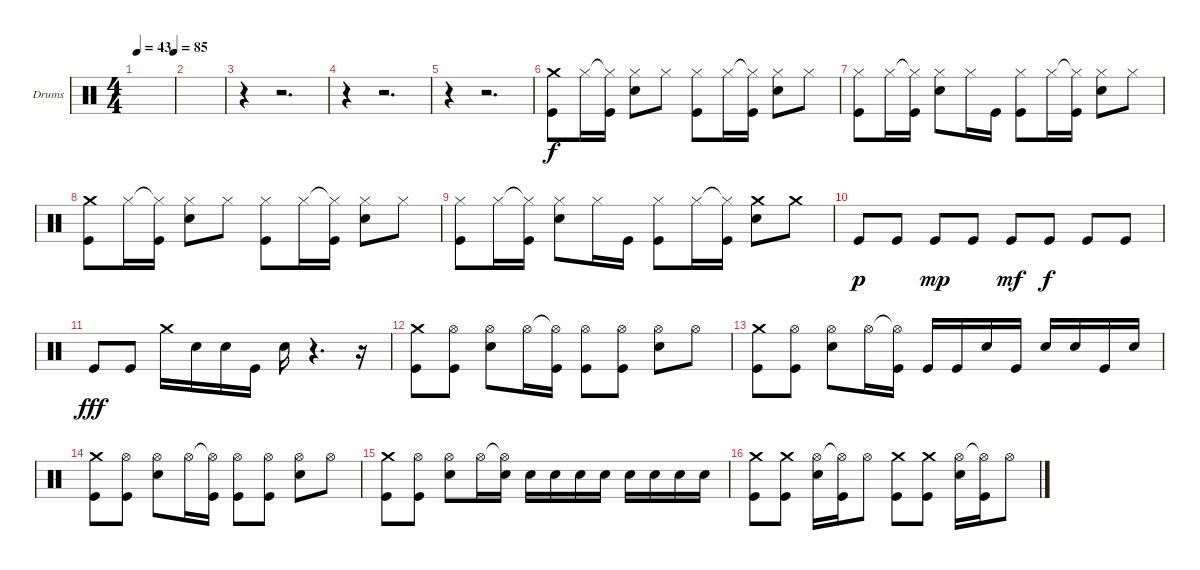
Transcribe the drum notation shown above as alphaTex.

\defaultSystemsLayout 4
\bracketExtendMode groupsimilarinstruments
\firstSystemTrackNameOrientation horizontal
\otherSystemsTrackNameOrientation horizontal
\track ("Drumkit" "Drums") {instrument percussion}
\staff {score}
\articulation defaults
\ts (4 4)
\tempo 43
\tempo (85 1)
\clef neutral
\scale
0.472222
\ks c
|
\scale
0.263889 |
\scale
0.263889 r.4 r.2{d} |
\scale
0.333333 r.4 r.2{d} |
\scale
0.333333 r.4 r.2{d} |
\scale
0.333333 ("Crash medium (hit)" "Kick (hit)").8 "Hi-Hat (closed)".16 ("Hi-Hat (closed)"{t} "Kick (hit)").16 ("Hi-Hat (closed)" "Snare (hit) 2").8 "Hi-Hat (closed)".8 ("Hi-Hat (closed)" "Kick (hit)").8 "Hi-Hat (closed)".16 ("Hi-Hat (closed)"{t} "Kick (hit)").16 ("Hi-Hat (closed)" "Snare (hit) 2").8 "Hi-Hat (closed)".8 |
\scale
0.333333 ("Hi-Hat (closed)" "Kick (hit)").8 "Hi-Hat (closed)".16 ("Hi-Hat (closed)"{t} "Kick (hit)").16 ("Hi-Hat (closed)" "Snare (hit) 2").8 "Hi-Hat (closed)".16 "Kick (hit)".16 ("Hi-Hat (closed)" "Kick (hit)").8 "Hi-Hat (closed)".16 ("Hi-Hat (closed)"{t} "Kick (hit)").16 ("Hi-Hat (closed)" "Snare (hit) 2").8 "Hi-Hat (closed)".8 |
\scale
0.333333 ("Crash medium (hit)" "Kick (hit)").8 "Hi-Hat (closed)".16 ("Hi-Hat (closed)"{t} "Kick (hit)").16 ("Hi-Hat (closed)" "Snare (hit) 2").8 "Hi-Hat (closed)".8 ("Hi-Hat (closed)" "Kick (hit)").8 "Hi-Hat (closed)".16 ("Hi-Hat (closed)"{t} "Kick (hit)").16 ("Hi-Hat (closed)" "Snare (hit) 2").8 "Hi-Hat (closed)".8 |
\scale
0.333333 ("Hi-Hat (closed)" "Kick (hit)").8 "Hi-Hat (closed)".16 ("Hi-Hat (closed)"{t} "Kick (hit)").16 ("Hi-Hat (closed)" "Snare (hit) 2").8 "Hi-Hat (closed)".16 "Kick (hit)".16 ("Hi-Hat (closed)" "Kick (hit)").8 "Hi-Hat (closed)".16 ("Hi-Hat (closed)"{t} "Kick (hit)").16 ("Crash medium (hit)" "Snare (hit) 2").8 "Crash medium (hit)".8 |
\scale
0.333333 "Kick (hit)".8{dy p} "Kick (hit)".8 "Kick (hit)".8{dy mp} "Kick (hit)".8 "Kick (hit)".8{dy mf} "Kick (hit)".8{dy f} "Kick (hit)".8 "Kick (hit)".8 |
\scale
0.333333 "Kick (hit)".8{dy fff} "Kick (hit)".8 "Crash medium (hit)".16 "Snare (hit) 2".16 "Snare (hit) 2".16 "Kick (hit)".16 "Snare (hit) 2".16 r.4{d} r.16 |
\scale
0.333333 ("Crash medium (hit)" "Kick (hit)").8 ("Hi-Hat (open)" "Kick (hit)").8 ("Hi-Hat (open)" "Snare (hit) 2").8 "Hi-Hat (open)".16 ("Hi-Hat (open)"{t} "Kick (hit)").16 ("Hi-Hat (open)" "Kick (hit)").8 ("Hi-Hat (open)" "Kick (hit)").8 ("Hi-Hat (open)" "Snare (hit) 2").8 "Hi-Hat (open)".8 |
\scale
0.333333 ("Crash medium (hit)" "Kick (hit)").8 ("Hi-Hat (open)" "Kick (hit)").8 ("Hi-Hat (open)" "Snare (hit) 2").8 "Hi-Hat (open)".16 ("Hi-Hat (open)"{t} "Kick (hit)").16 "Kick (hit)".16 "Kick (hit)".16 "Snare (hit) 2".16 "Kick (hit)".16 "Snare (hit) 2".16 "Snare (hit) 2".16 "Kick (hit)".16 "Snare (hit) 2".16 |
\scale
0.333333 ("Crash medium (hit)" "Kick (hit)").8 ("Hi-Hat (open)" "Kick (hit)").8 ("Hi-Hat (open)" "Snare (hit) 2").8 "Hi-Hat (open)".16 ("Hi-Hat (open)"{t} "Kick (hit)").16 ("Hi-Hat (open)" "Kick (hit)").8 ("Hi-Hat (open)" "Kick (hit)").8 ("Hi-Hat (open)" "Snare (hit) 2").8 "Hi-Hat (open)".8 |
\scale
0.333333 ("Crash medium (hit)" "Kick (hit)").8 ("Hi-Hat (open)" "Kick (hit)").8 ("Hi-Hat (open)" "Snare (hit) 2").8 "Hi-Hat (open)".16 ("Hi-Hat (open)"{t} "Snare (hit) 2").16 "Snare (hit) 2".16 "Snare (hit) 2".16 "Snare (hit) 2".16 "Snare (hit) 2".16 "Snare (hit) 2".16 "Snare (hit) 2".16 "Snare (hit) 2".16 "Snare (hit) 2".16 |
\scale
0.333333 ("Crash medium (hit)" "Kick (hit)").8 ("Crash medium (hit)" "Kick (hit)").8 ("Hi-Hat (open)" "Snare (hit) 2").16 ("Hi-Hat (open)"{t} "Kick (hit)").16 "Hi-Hat (open)".8 ("Crash medium (hit)" "Kick (hit)").8 ("Crash medium (hit)" "Kick (hit)").8 ("Hi-Hat (open)" "Snare (hit) 2").16 ("Hi-Hat (open)"{t} "Kick (hit)").16 "Hi-Hat (open)".8
